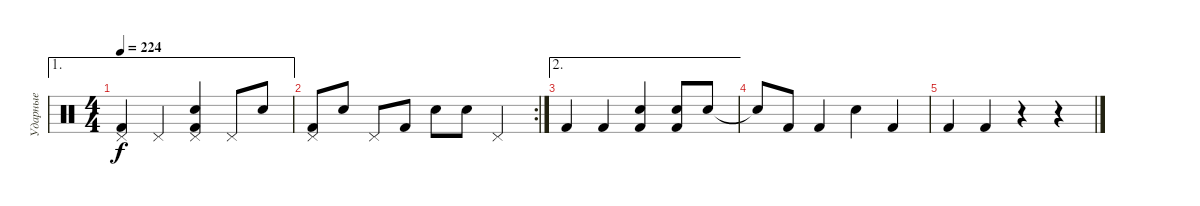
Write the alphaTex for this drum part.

\track ("Ударные" "Ударные") {instrument percussion}
\staff {score}
\articulation defaults
\ae 1
\ts (4 4)
\tempo 224
\clef neutral
\ks c
("Kick (hit) 2" "Pedal Hi-Hat (hit)").4{dy f} "Pedal Hi-Hat (hit)".4 ("Kick (hit) 2" "Pedal Hi-Hat (hit)" "Snare (hit) 2").4 "Pedal Hi-Hat (hit)".8 "Snare (hit) 2".8 |
\rc 2
("Kick (hit) 2" "Pedal Hi-Hat (hit)").8 "Snare (hit) 2".8 "Pedal Hi-Hat (hit)".8 "Kick (hit) 2".8 "Snare (hit) 2".8 "Snare (hit) 2".8 "Pedal Hi-Hat (hit)".4 |
\ae 2 "Kick (hit) 2".4 "Kick (hit) 2".4
("Kick (hit) 2" "Snare (hit) 2").4 ("Kick (hit) 2" "Snare (hit) 2").8 "Snare (hit) 2".8 |
"Snare (hit)"{t}.8 "Kick (hit) 2".8 "Kick (hit) 2".4 "Snare (hit) 2".4 "Kick (hit) 2".4 |
"Kick (hit) 2".4 "Kick (hit) 2".4 r.4 r.4
